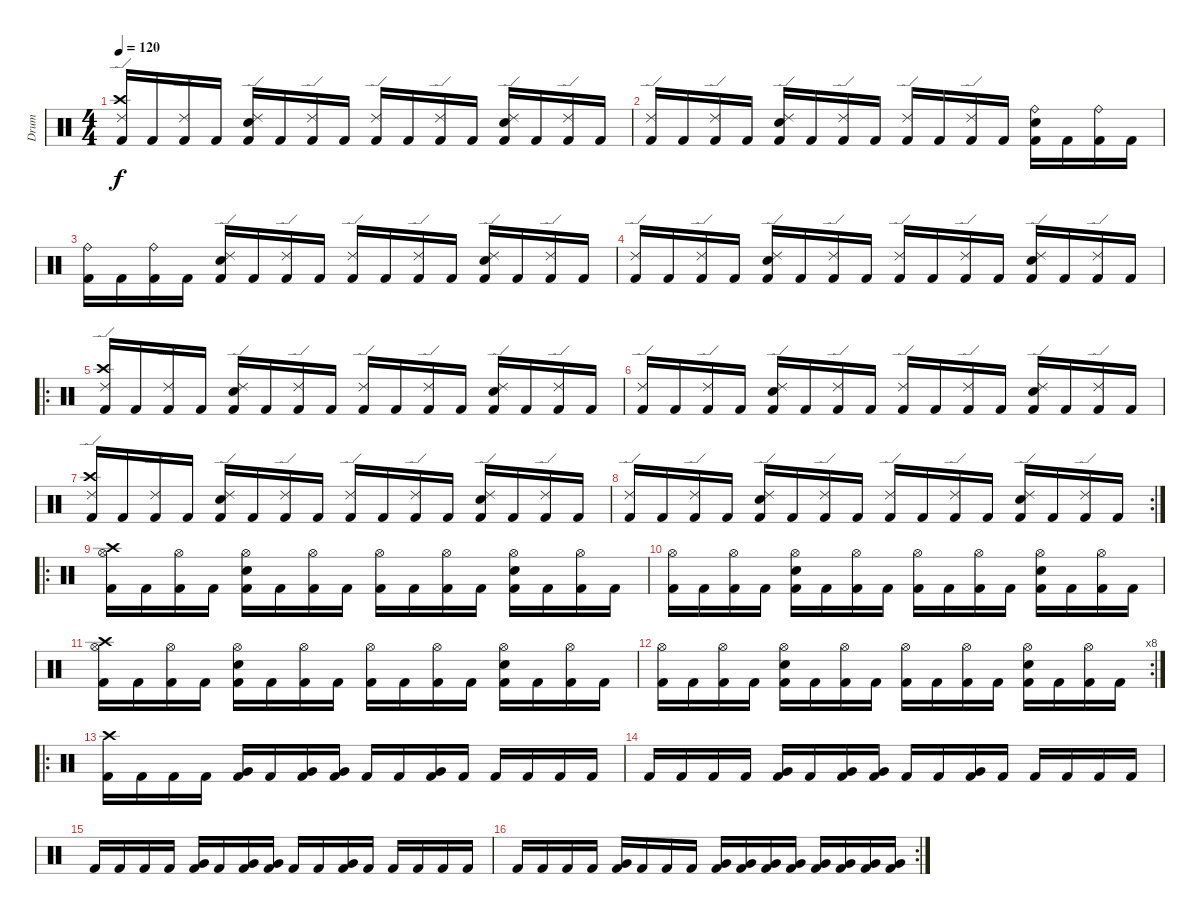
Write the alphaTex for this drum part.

\track ("Drum" "Drum") {instrument percussion}
\staff {score}
\articulation defaults
\ts (4 4)
\tempo 120
\clef neutral
\ks c
("Ride (edge) 2" "Crash high (hit)" "Kick (hit) 2").16{dy f} "Kick (hit) 2".16 ("Ride (edge) 2" "Kick (hit) 2").16 "Kick (hit) 2".16 ("Ride (edge) 2" "Snare (hit) 2" "Kick (hit) 2").16 "Kick (hit) 2".16 ("Ride (edge) 2" "Kick (hit) 2").16 "Kick (hit) 2".16 ("Ride (edge) 2" "Kick (hit) 2").16 "Kick (hit) 2".16 ("Ride (edge) 2" "Kick (hit) 2").16 "Kick (hit) 2".16 ("Ride (edge) 2" "Snare (hit) 2" "Kick (hit) 2").16 "Kick (hit) 2".16 ("Ride (edge) 2" "Kick (hit) 2").16 "Kick (hit) 2".16 |
("Ride (edge) 2" "Kick (hit) 2").16 "Kick (hit) 2".16 ("Ride (edge) 2" "Kick (hit) 2").16 "Kick (hit) 2".16 ("Ride (edge) 2" "Snare (hit) 2" "Kick (hit) 2").16 "Kick (hit) 2".16 ("Ride (edge) 2" "Kick (hit) 2").16 "Kick (hit) 2".16 ("Ride (edge) 2" "Kick (hit) 2").16 "Kick (hit) 2".16 ("Ride (edge) 2" "Kick (hit) 2").16 "Kick (hit) 2".16 ("Ride (bell)" "Snare (hit) 2" "Kick (hit) 2").16 "Kick (hit) 2".16 ("Ride (bell)" "Kick (hit) 2").16 "Kick (hit) 2".16 |
("Ride (bell)" "Kick (hit) 2").16 "Kick (hit) 2".16 ("Ride (bell)" "Kick (hit) 2").16 "Kick (hit) 2".16 ("Ride (edge) 2" "Snare (hit) 2" "Kick (hit) 2").16 "Kick (hit) 2".16 ("Ride (edge) 2" "Kick (hit) 2").16 "Kick (hit) 2".16 ("Ride (edge) 2" "Kick (hit) 2").16 "Kick (hit) 2".16 ("Ride (edge) 2" "Kick (hit) 2").16 "Kick (hit) 2".16 ("Ride (edge) 2" "Snare (hit) 2" "Kick (hit) 2").16 "Kick (hit) 2".16 ("Ride (edge) 2" "Kick (hit) 2").16 "Kick (hit) 2".16 |
("Ride (edge) 2" "Kick (hit) 2").16 "Kick (hit) 2".16 ("Ride (edge) 2" "Kick (hit) 2").16 "Kick (hit) 2".16 ("Ride (edge) 2" "Snare (hit) 2" "Kick (hit) 2").16 "Kick (hit) 2".16 ("Ride (edge) 2" "Kick (hit) 2").16 "Kick (hit) 2".16 ("Ride (edge) 2" "Kick (hit) 2").16 "Kick (hit) 2".16 ("Ride (edge) 2" "Kick (hit) 2").16 "Kick (hit) 2".16 ("Ride (edge) 2" "Snare (hit) 2" "Kick (hit) 2").16 "Kick (hit) 2".16 ("Ride (edge) 2" "Kick (hit) 2").16 "Kick (hit) 2".16 |
\ro
("Ride (edge) 2" "Crash high (hit)" "Kick (hit) 2").16 "Kick (hit) 2".16 ("Ride (edge) 2" "Kick (hit) 2").16 "Kick (hit) 2".16 ("Ride (edge) 2" "Snare (hit) 2" "Kick (hit) 2").16 "Kick (hit) 2".16 ("Ride (edge) 2" "Kick (hit) 2").16 "Kick (hit) 2".16 ("Ride (edge) 2" "Kick (hit) 2").16 "Kick (hit) 2".16 ("Ride (edge) 2" "Kick (hit) 2").16 "Kick (hit) 2".16 ("Ride (edge) 2" "Snare (hit) 2" "Kick (hit) 2").16 "Kick (hit) 2".16 ("Ride (edge) 2" "Kick (hit) 2").16 "Kick (hit) 2".16 |
("Ride (edge) 2" "Kick (hit) 2").16 "Kick (hit) 2".16 ("Ride (edge) 2" "Kick (hit) 2").16 "Kick (hit) 2".16 ("Ride (edge) 2" "Snare (hit) 2" "Kick (hit) 2").16 "Kick (hit) 2".16 ("Ride (edge) 2" "Kick (hit) 2").16 "Kick (hit) 2".16 ("Ride (edge) 2" "Kick (hit) 2").16 "Kick (hit) 2".16 ("Ride (edge) 2" "Kick (hit) 2").16 "Kick (hit) 2".16 ("Ride (edge) 2" "Snare (hit) 2" "Kick (hit) 2").16 "Kick (hit) 2".16 ("Ride (edge) 2" "Kick (hit) 2").16 "Kick (hit) 2".16 |
("Ride (edge) 2" "Crash high (hit)" "Kick (hit) 2").16 "Kick (hit) 2".16 ("Ride (edge) 2" "Kick (hit) 2").16 "Kick (hit) 2".16 ("Ride (edge) 2" "Snare (hit) 2" "Kick (hit) 2").16 "Kick (hit) 2".16 ("Ride (edge) 2" "Kick (hit) 2").16 "Kick (hit) 2".16 ("Ride (edge) 2" "Kick (hit) 2").16 "Kick (hit) 2".16 ("Ride (edge) 2" "Kick (hit) 2").16 "Kick (hit) 2".16 ("Ride (edge) 2" "Snare (hit) 2" "Kick (hit) 2").16 "Kick (hit) 2".16 ("Ride (edge) 2" "Kick (hit) 2").16 "Kick (hit) 2".16 |
\rc 2
("Ride (edge) 2" "Kick (hit) 2").16 "Kick (hit) 2".16 ("Ride (edge) 2" "Kick (hit) 2").16 "Kick (hit) 2".16 ("Ride (edge) 2" "Snare (hit) 2" "Kick (hit) 2").16 "Kick (hit) 2".16 ("Ride (edge) 2" "Kick (hit) 2").16 "Kick (hit) 2".16 ("Ride (edge) 2" "Kick (hit) 2").16 "Kick (hit) 2".16 ("Ride (edge) 2" "Kick (hit) 2").16 "Kick (hit) 2".16 ("Ride (edge) 2" "Snare (hit) 2" "Kick (hit) 2").16 "Kick (hit) 2".16 ("Ride (edge) 2" "Kick (hit) 2").16 "Kick (hit) 2".16 |
\ro
("Hi-Hat (open)" "Crash high (hit)" "Kick (hit) 2").16 "Kick (hit) 2".16 ("Hi-Hat (open)" "Kick (hit) 2").16 "Kick (hit) 2".16 ("Hi-Hat (open)" "Snare (hit) 2" "Kick (hit) 2").16 "Kick (hit) 2".16 ("Hi-Hat (open)" "Kick (hit) 2").16 "Kick (hit) 2".16 ("Hi-Hat (open)" "Kick (hit) 2").16 "Kick (hit) 2".16 ("Hi-Hat (open)" "Kick (hit) 2").16 "Kick (hit) 2".16 ("Hi-Hat (open)" "Snare (hit) 2" "Kick (hit) 2").16 "Kick (hit) 2".16 ("Hi-Hat (open)" "Kick (hit) 2").16 "Kick (hit) 2".16 |
("Hi-Hat (open)" "Kick (hit) 2").16 "Kick (hit) 2".16 ("Hi-Hat (open)" "Kick (hit) 2").16 "Kick (hit) 2".16 ("Hi-Hat (open)" "Snare (hit) 2" "Kick (hit) 2").16 "Kick (hit) 2".16 ("Hi-Hat (open)" "Kick (hit) 2").16 "Kick (hit) 2".16 ("Hi-Hat (open)" "Kick (hit) 2").16 "Kick (hit) 2".16 ("Hi-Hat (open)" "Kick (hit) 2").16 "Kick (hit) 2".16 ("Hi-Hat (open)" "Snare (hit) 2" "Kick (hit) 2").16 "Kick (hit) 2".16 ("Hi-Hat (open)" "Kick (hit) 2").16 "Kick (hit) 2".16 |
("Hi-Hat (open)" "Crash high (hit)" "Kick (hit) 2").16 "Kick (hit) 2".16 ("Hi-Hat (open)" "Kick (hit) 2").16 "Kick (hit) 2".16 ("Hi-Hat (open)" "Snare (hit) 2" "Kick (hit) 2").16 "Kick (hit) 2".16 ("Hi-Hat (open)" "Kick (hit) 2").16 "Kick (hit) 2".16 ("Hi-Hat (open)" "Kick (hit) 2").16 "Kick (hit) 2".16 ("Hi-Hat (open)" "Kick (hit) 2").16 "Kick (hit) 2".16 ("Hi-Hat (open)" "Snare (hit) 2" "Kick (hit) 2").16 "Kick (hit) 2".16 ("Hi-Hat (open)" "Kick (hit) 2").16 "Kick (hit) 2".16 |
\rc 8
("Hi-Hat (open)" "Kick (hit) 2").16 "Kick (hit) 2".16 ("Hi-Hat (open)" "Kick (hit) 2").16 "Kick (hit) 2".16 ("Hi-Hat (open)" "Snare (hit) 2" "Kick (hit) 2").16 "Kick (hit) 2".16 ("Hi-Hat (open)" "Kick (hit) 2").16 "Kick (hit) 2".16 ("Hi-Hat (open)" "Kick (hit) 2").16 "Kick (hit) 2".16 ("Hi-Hat (open)" "Kick (hit) 2").16 "Kick (hit) 2".16 ("Hi-Hat (open)" "Snare (hit) 2" "Kick (hit) 2").16 "Kick (hit) 2".16 ("Hi-Hat (open)" "Kick (hit) 2").16 "Kick (hit) 2".16 |
\ro
("Crash high (hit)" "Kick (hit) 2").16 "Kick (hit) 2".16 "Kick (hit) 2".16 "Kick (hit) 2".16 ("Very Low Tom (hit)" "Kick (hit) 2").16 "Kick (hit) 2".16 ("Very Low Tom (hit)" "Kick (hit) 2").16 ("Very Low Tom (hit)" "Kick (hit) 2").16 "Kick (hit) 2".16 "Kick (hit) 2".16 ("Very Low Tom (hit)" "Kick (hit) 2").16 "Kick (hit) 2".16 "Kick (hit) 2".16 "Kick (hit) 2".16 "Kick (hit) 2".16 "Kick (hit) 2".16 |
"Kick (hit) 2".16 "Kick (hit) 2".16 "Kick (hit) 2".16 "Kick (hit) 2".16 ("Very Low Tom (hit)" "Kick (hit) 2").16 "Kick (hit) 2".16 ("Very Low Tom (hit)" "Kick (hit) 2").16 ("Very Low Tom (hit)" "Kick (hit) 2").16 "Kick (hit) 2".16 "Kick (hit) 2".16 ("Very Low Tom (hit)" "Kick (hit) 2").16 "Kick (hit) 2".16 "Kick (hit) 2".16 "Kick (hit) 2".16 "Kick (hit) 2".16 "Kick (hit) 2".16 |
"Kick (hit) 2".16 "Kick (hit) 2".16 "Kick (hit) 2".16 "Kick (hit) 2".16 ("Very Low Tom (hit)" "Kick (hit) 2").16 "Kick (hit) 2".16 ("Very Low Tom (hit)" "Kick (hit) 2").16 ("Very Low Tom (hit)" "Kick (hit) 2").16 "Kick (hit) 2".16 "Kick (hit) 2".16 ("Very Low Tom (hit)" "Kick (hit) 2").16 "Kick (hit) 2".16 "Kick (hit) 2".16 "Kick (hit) 2".16 "Kick (hit) 2".16 "Kick (hit) 2".16 |
\rc 2 "Kick (hit) 2".16 "Kick (hit) 2".16 "Kick (hit) 2".16 "Kick (hit) 2".16
("Very Low Tom (hit)" "Kick (hit) 2").16 "Kick (hit) 2".16 "Kick (hit) 2".16 "Kick (hit) 2".16 ("Very Low Tom (hit)" "Kick (hit) 2").16 ("Very Low Tom (hit)" "Kick (hit) 2").16 ("Very Low Tom (hit)" "Kick (hit) 2").16 ("Very Low Tom (hit)" "Kick (hit) 2").16 ("Very Low Tom (hit)" "Kick (hit) 2").16 ("Very Low Tom (hit)" "Kick (hit) 2").16 ("Very Low Tom (hit)" "Kick (hit) 2").16 ("Very Low Tom (hit)" "Kick (hit) 2").16
